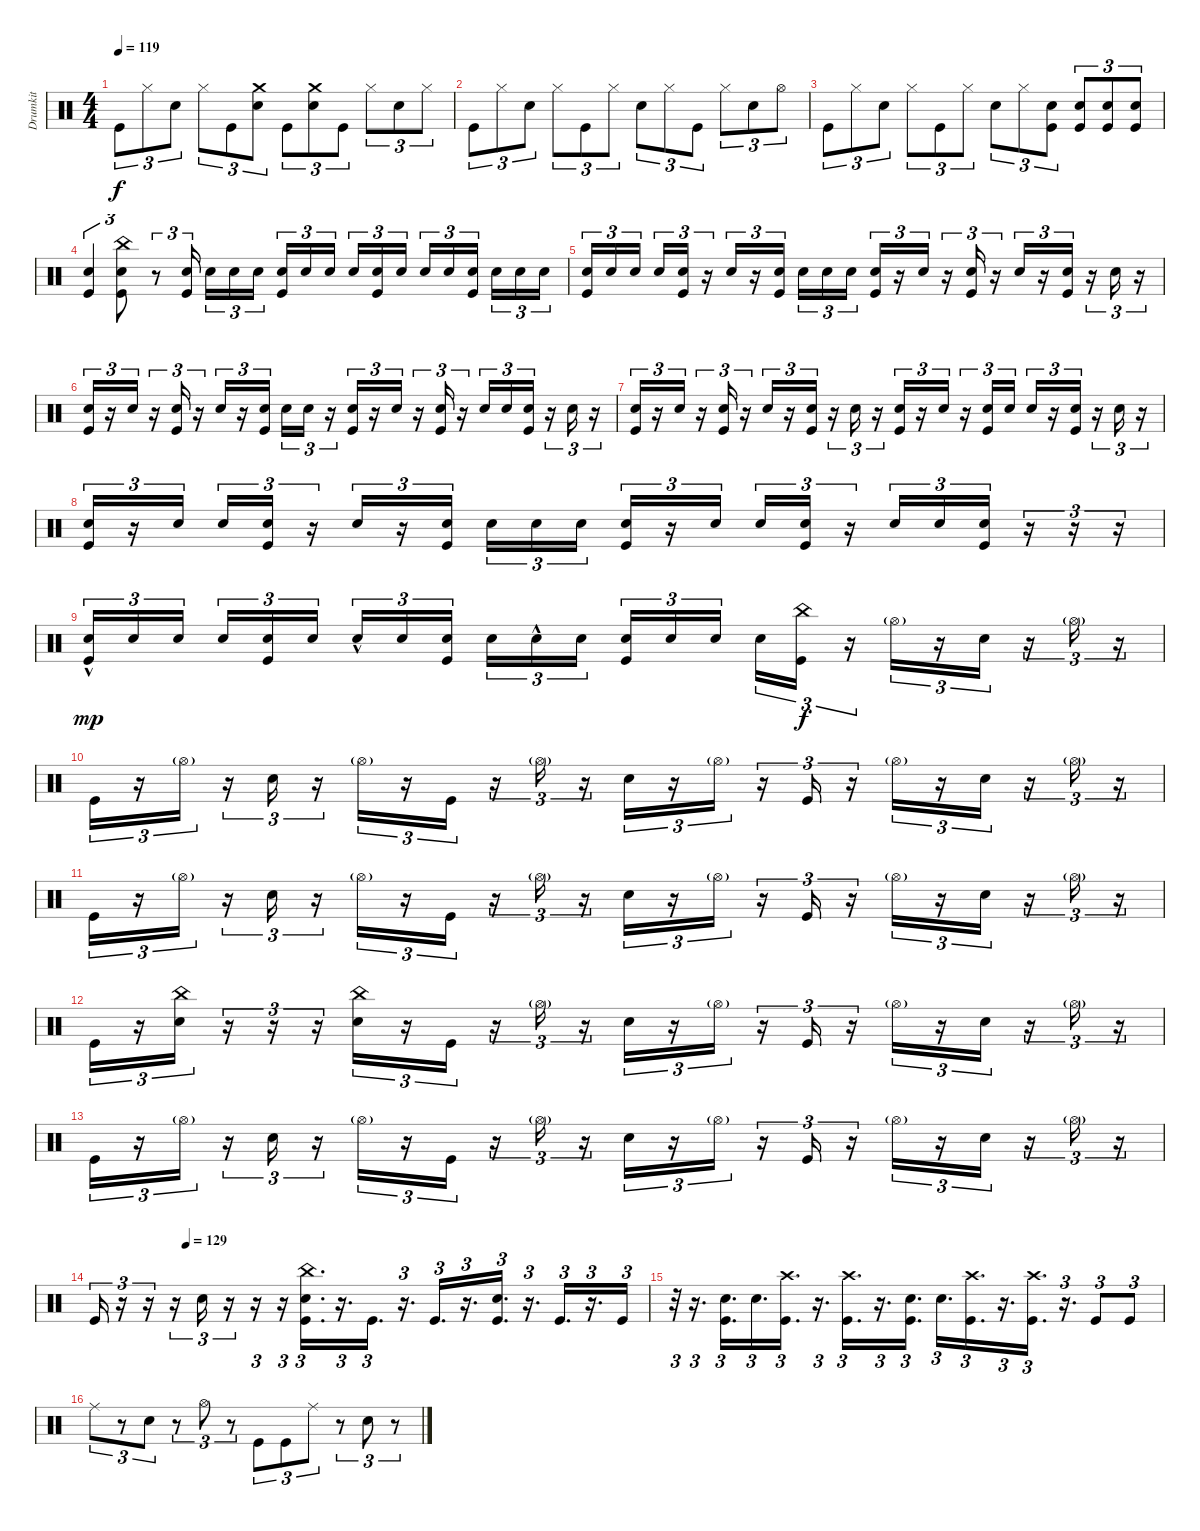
\track ("Drumkit" "Drumkit") {instrument percussion}
\staff {score}
\articulation defaults
\ts (4 4)
\tempo 119
\clef neutral
\ks c "Kick (hit)".8{tu (3 2) dy f} "Hi-Hat (closed)".8{tu (3 2)} "Snare (hit) 2".8{tu (3 2)} "Hi-Hat (closed)".8{tu (3 2)} "Kick (hit)".8{tu (3 2)}
("Snare (hit) 2" "Crash medium (hit)").8{tu (3 2)} "Kick (hit)".8{tu (3 2)} ("Snare (hit) 2" "Crash medium (hit)").8{tu (3 2)} "Kick (hit)".8{tu (3 2)} "Hi-Hat (closed)".8{tu (3 2)} "Snare (hit) 2".8{tu (3 2)} "Hi-Hat (closed)".8{tu (3 2)} |
"Kick (hit)".8{tu (3 2)} "Hi-Hat (closed)".8{tu (3 2)} "Snare (hit) 2".8{tu (3 2)} "Hi-Hat (closed)".8{tu (3 2)} "Kick (hit)".8{tu (3 2)} "Hi-Hat (closed)".8{tu (3 2)} "Snare (hit) 2".8{tu (3 2)} "Hi-Hat (closed)".8{tu (3 2)} "Kick (hit)".8{tu (3 2)} "Hi-Hat (closed)".8{tu (3 2)} "Snare (hit) 2".8{tu (3 2)} "Hi-Hat (open)".8{tu (3 2)} |
"Kick (hit)".8{tu (3 2)} "Hi-Hat (closed)".8{tu (3 2)} "Snare (hit) 2".8{tu (3 2)} "Hi-Hat (closed)".8{tu (3 2)} "Kick (hit)".8{tu (3 2)} "Hi-Hat (closed)".8{tu (3 2)} "Snare (hit) 2".8{tu (3 2)} "Hi-Hat (closed)".8{tu (3 2)} ("Kick (hit)" "Snare (hit) 2").8{tu (3 2)} ("Kick (hit)" "Snare (hit) 2").8{tu (3 2)} ("Kick (hit)" "Snare (hit) 2").8{tu (3 2)} ("Kick (hit)" "Snare (hit) 2").8{tu (3 2)} |
("Kick (hit)" "Snare (hit) 2").4{tu (3 2)} ("Snare (hit) 2" "Kick (hit)" "China (hit)").8{tu (3 2)} r.8{tu (3 2)} ("Kick (hit)" "Snare (hit) 2").16{tu (3 2)} "Snare (hit) 2".16{tu (3 2)} "Snare (hit) 2".16{tu (3 2)} "Snare (hit) 2".16{tu (3 2)} ("Kick (hit)" "Snare (hit) 2").16{tu (3 2)} "Snare (hit) 2".16{tu (3 2)} "Snare (hit) 2".16{tu (3 2)} "Snare (hit) 2".16{tu (3 2)} ("Kick (hit)" "Snare (hit) 2").16{tu (3 2)} "Snare (hit) 2".16{tu (3 2)} "Snare (hit) 2".16{tu (3 2)} "Snare (hit) 2".16{tu (3 2)} ("Kick (hit)" "Snare (hit) 2").16{tu (3 2)} "Snare (hit) 2".16{tu (3 2)} "Snare (hit) 2".16{tu (3 2)} "Snare (hit) 2".16{tu (3 2)} |
("Kick (hit)" "Snare (hit) 2").16{tu (3 2)} "Snare (hit) 2".16{tu (3 2)} "Snare (hit) 2".16{tu (3 2)} "Snare (hit) 2".16{tu (3 2)} ("Kick (hit)" "Snare (hit) 2").16{tu (3 2)} r.16{tu (3 2)} "Snare (hit) 2".16{tu (3 2)} r.16{tu (3 2)} ("Kick (hit)" "Snare (hit) 2").16{tu (3 2)} "Snare (hit) 2".16{tu (3 2)} "Snare (hit) 2".16{tu (3 2)} "Snare (hit) 2".16{tu (3 2)} ("Kick (hit)" "Snare (hit) 2").16{tu (3 2)} r.16{tu (3 2)} "Snare (hit) 2".16{tu (3 2)} r.16{tu (3 2)} ("Kick (hit)" "Snare (hit) 2").16{tu (3 2)} r.16{tu (3 2)} "Snare (hit) 2".16{tu (3 2)} r.16{tu (3 2)} ("Kick (hit)" "Snare (hit) 2").16{tu (3 2)} r.16{tu (3 2)} "Snare (hit) 2".16{tu (3 2)} r.16{tu (3 2)} |
("Kick (hit)" "Snare (hit) 2").16{tu (3 2)} r.16{tu (3 2)} "Snare (hit) 2".16{tu (3 2)} r.16{tu (3 2)} ("Kick (hit)" "Snare (hit) 2").16{tu (3 2)} r.16{tu (3 2)} "Snare (hit) 2".16{tu (3 2)} r.16{tu (3 2)} ("Kick (hit)" "Snare (hit) 2").16{tu (3 2)} "Snare (hit) 2".16{tu (3 2)} "Snare (hit) 2".16{tu (3 2)} r.16{tu (3 2)} ("Kick (hit)" "Snare (hit) 2").16{tu (3 2)} r.16{tu (3 2)} "Snare (hit) 2".16{tu (3 2)} r.16{tu (3 2)} ("Kick (hit)" "Snare (hit) 2").16{tu (3 2)} r.16{tu (3 2)} "Snare (hit) 2".16{tu (3 2)} "Snare (hit) 2".16{tu (3 2)} ("Kick (hit)" "Snare (hit) 2").16{tu (3 2)} r.16{tu (3 2)} "Snare (hit) 2".16{tu (3 2)} r.16{tu (3 2)} |
("Kick (hit)" "Snare (hit) 2").16{tu (3 2)} r.16{tu (3 2)} "Snare (hit) 2".16{tu (3 2)} r.16{tu (3 2)} ("Kick (hit)" "Snare (hit) 2").16{tu (3 2)} r.16{tu (3 2)} "Snare (hit) 2".16{tu (3 2)} r.16{tu (3 2)} ("Kick (hit)" "Snare (hit) 2").16{tu (3 2)} r.16{tu (3 2)} "Snare (hit) 2".16{tu (3 2)} r.16{tu (3 2)} ("Kick (hit)" "Snare (hit) 2").16{tu (3 2)} r.16{tu (3 2)} "Snare (hit) 2".16{tu (3 2)} r.16{tu (3 2)} ("Kick (hit)" "Snare (hit) 2").16{tu (3 2)} "Snare (hit) 2".16{tu (3 2)} "Snare (hit) 2".16{tu (3 2)} r.16{tu (3 2)} ("Kick (hit)" "Snare (hit) 2").16{tu (3 2)} r.16{tu (3 2)} "Snare (hit) 2".16{tu (3 2)} r.16{tu (3 2)} |
("Kick (hit)" "Snare (hit) 2").16{tu (3 2)} r.16{tu (3 2)} "Snare (hit) 2".16{tu (3 2)} "Snare (hit) 2".16{tu (3 2)} ("Kick (hit)" "Snare (hit) 2").16{tu (3 2)} r.16{tu (3 2)} "Snare (hit) 2".16{tu (3 2)} r.16{tu (3 2)} ("Kick (hit)" "Snare (hit) 2").16{tu (3 2)} "Snare (hit) 2".16{tu (3 2)} "Snare (hit) 2".16{tu (3 2)} "Snare (hit) 2".16{tu (3 2)} ("Kick (hit)" "Snare (hit) 2").16{tu (3 2)} r.16{tu (3 2)} "Snare (hit) 2".16{tu (3 2)} "Snare (hit) 2".16{tu (3 2)} ("Kick (hit)" "Snare (hit) 2").16{tu (3 2)} r.16{tu (3 2)} "Snare (hit) 2".16{tu (3 2)} "Snare (hit) 2".16{tu (3 2)} ("Kick (hit)" "Snare (hit) 2").16{tu (3 2)} r.16{tu (3 2)} r.16{tu (3 2)} r.16{tu (3 2)} |
("Snare (hit) 2"{hac} "Kick (hit)").16{tu (3 2) dy mp} "Snare (hit) 2".16{tu (3 2)} "Snare (hit) 2".16{tu (3 2)} "Snare (hit) 2".16{tu (3 2)} ("Snare (hit) 2" "Kick (hit)").16{tu (3 2)} "Snare (hit) 2".16{tu (3 2)} "Snare (hit) 2"{hac}.16{tu (3 2)} "Snare (hit) 2".16{tu (3 2)} ("Kick (hit)" "Snare (hit) 2").16{tu (3 2)} "Snare (hit) 2".16{tu (3 2)} "Snare (hit) 2"{hac}.16{tu (3 2)} "Snare (hit) 2".16{tu (3 2)} ("Kick (hit)" "Snare (hit) 2").16{tu (3 2)} "Snare (hit) 2".16{tu (3 2)} "Snare (hit) 2".16{tu (3 2)} "Snare (hit) 2".16{tu (3 2)} ("Kick (hit)" "China (hit)").16{tu (3 2) dy f} r.16{tu (3 2)} "Hi-Hat (open)"{g}.16{tu (3 2)} r.16{tu (3 2)} "Snare (hit) 2".16{tu (3 2)} r.16{tu (3 2)} "Hi-Hat (open)"{g}.16{tu (3 2)} r.16{tu (3 2)} |
"Kick (hit)".16{tu (3 2)} r.16{tu (3 2)} "Hi-Hat (open)"{g}.16{tu (3 2)} r.16{tu (3 2)} "Snare (hit) 2".16{tu (3 2)} r.16{tu (3 2)} "Hi-Hat (open)"{g}.16{tu (3 2)} r.16{tu (3 2)} "Kick (hit)".16{tu (3 2)} r.16{tu (3 2)} "Hi-Hat (open)"{g}.16{tu (3 2)} r.16{tu (3 2)} "Snare (hit) 2".16{tu (3 2)} r.16{tu (3 2)} "Hi-Hat (open)"{g}.16{tu (3 2)} r.16{tu (3 2)} "Kick (hit)".16{tu (3 2)} r.16{tu (3 2)} "Hi-Hat (open)"{g}.16{tu (3 2)} r.16{tu (3 2)} "Snare (hit) 2".16{tu (3 2)} r.16{tu (3 2)} "Hi-Hat (open)"{g}.16{tu (3 2)} r.16{tu (3 2)} |
"Kick (hit)".16{tu (3 2)} r.16{tu (3 2)} "Hi-Hat (open)"{g}.16{tu (3 2)} r.16{tu (3 2)} "Snare (hit) 2".16{tu (3 2)} r.16{tu (3 2)} "Hi-Hat (open)"{g}.16{tu (3 2)} r.16{tu (3 2)} "Kick (hit)".16{tu (3 2)} r.16{tu (3 2)} "Hi-Hat (open)"{g}.16{tu (3 2)} r.16{tu (3 2)} "Snare (hit) 2".16{tu (3 2)} r.16{tu (3 2)} "Hi-Hat (open)"{g}.16{tu (3 2)} r.16{tu (3 2)} "Kick (hit)".16{tu (3 2)} r.16{tu (3 2)} "Hi-Hat (open)"{g}.16{tu (3 2)} r.16{tu (3 2)} "Snare (hit) 2".16{tu (3 2)} r.16{tu (3 2)} "Hi-Hat (open)"{g}.16{tu (3 2)} r.16{tu (3 2)} |
"Kick (hit)".16{tu (3 2)} r.16{tu (3 2)} ("Snare (hit) 2" "China (hit)").16{tu (3 2)} r.16{tu (3 2)} r.16{tu (3 2)} r.16{tu (3 2)} ("Snare (hit) 2" "China (hit)").16{tu (3 2)} r.16{tu (3 2)} "Kick (hit)".16{tu (3 2)} r.16{tu (3 2)} "Hi-Hat (open)"{g}.16{tu (3 2)} r.16{tu (3 2)} "Snare (hit) 2".16{tu (3 2)} r.16{tu (3 2)} "Hi-Hat (open)"{g}.16{tu (3 2)} r.16{tu (3 2)} "Kick (hit)".16{tu (3 2)} r.16{tu (3 2)} "Hi-Hat (open)"{g}.16{tu (3 2)} r.16{tu (3 2)} "Snare (hit) 2".16{tu (3 2)} r.16{tu (3 2)} "Hi-Hat (open)"{g}.16{tu (3 2)} r.16{tu (3 2)} |
"Kick (hit)".16{tu (3 2)} r.16{tu (3 2)} "Hi-Hat (open)"{g}.16{tu (3 2)} r.16{tu (3 2)} "Snare (hit) 2".16{tu (3 2)} r.16{tu (3 2)} "Hi-Hat (open)"{g}.16{tu (3 2)} r.16{tu (3 2)} "Kick (hit)".16{tu (3 2)} r.16{tu (3 2)} "Hi-Hat (open)"{g}.16{tu (3 2)} r.16{tu (3 2)} "Snare (hit) 2".16{tu (3 2)} r.16{tu (3 2)} "Hi-Hat (open)"{g}.16{tu (3 2)} r.16{tu (3 2)} "Kick (hit)".16{tu (3 2)} r.16{tu (3 2)} "Hi-Hat (open)"{g}.16{tu (3 2)} r.16{tu (3 2)} "Snare (hit) 2".16{tu (3 2)} r.16{tu (3 2)} "Hi-Hat (open)"{g}.16{tu (3 2)} r.16{tu (3 2)} |
\tempo (129 0.16666666666666666)
"Kick (hit)".16{tu (3 2)} r.16{tu (3 2)} r.16{tu (3 2)} r.16{tu (3 2)} "Snare (hit) 2".16{tu (3 2)} r.16{tu (3 2)} r.16{tu (3 2)} r.16{tu (3 2)} ("Kick (hit)" "Snare (hit) 2" "China (hit)").16{d tu (3 2)} r.16{d tu (3 2)} "Kick (hit)".16{d tu (3 2)} r.16{d tu (3 2)} "Kick (hit)".16{d tu (3 2)} r.16{d tu (3 2)} ("Kick (hit)" "Snare (hit) 2").16{d tu (3 2)} r.16{d tu (3 2)} "Kick (hit)".16{d tu (3 2)} r.16{d tu (3 2)} "Kick (hit)".16{tu (3 2)} |
r.32{tu (3 2)} r.16{d tu (3 2)} ("Kick (hit)" "Snare (hit) 2").16{d tu (3 2)} "Snare (hit) 2".16{d tu (3 2)} ("Kick (hit)" "Crash high (hit)").16{d tu (3 2)} r.16{d tu (3 2)} ("Kick (hit)" "Crash high (hit)").16{d tu (3 2)} r.16{d tu (3 2)} ("Kick (hit)" "Snare (hit) 2").16{d tu (3 2)} "Snare (hit) 2".16{d tu (3 2)} ("Kick (hit)" "Crash high (hit)").16{d tu (3 2)} r.16{d tu (3 2)} ("Kick (hit)" "Crash high (hit)").16{d tu (3 2)} r.16{d tu (3 2)} "Kick (hit)".8{tu (3 2)} "Kick (hit)".8{tu (3 2)} |
"Ride (middle)".8{tu (3 2)} r.8{tu (3 2)} "Snare (hit) 2".8{tu (3 2)} r.8{tu (3 2)} "Hi-Hat (open)".8{tu (3 2)} r.8{tu (3 2)} "Kick (hit)".8{tu (3 2)} "Kick (hit)".8{tu (3 2)} "Ride (middle)".8{tu (3 2)} r.8{tu (3 2)} "Snare (hit) 2".8{tu (3 2)} r.8{tu (3 2)}
